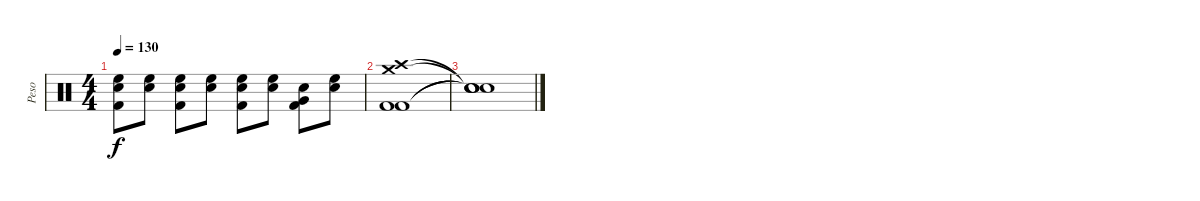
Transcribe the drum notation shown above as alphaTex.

\track ("Peso" "Peso") {instrument percussion}
\staff {score}
\articulation defaults
\ts (4 4)
\tempo 130
\clef neutral
\ks c
("High Floor Tom (hit)" "Snare (hit) 2" "Kick (hit) 2").8{dy f} ("High Floor Tom (hit)" "Snare (hit) 2").8 ("High Floor Tom (hit)" "Snare (hit) 2" "Kick (hit) 2").8 ("High Floor Tom (hit)" "Snare (hit) 2").8 ("High Floor Tom (hit)" "Snare (hit) 2" "Kick (hit) 2").8 ("High Floor Tom (hit)" "Snare (hit) 2").8 ("Very Low Tom (hit)" "Snare (hit) 2" "Kick (hit) 2").8 ("High Floor Tom (hit)" "Snare (hit) 2").8 |
("Crash medium (hit)" "Crash high (hit)" "Kick (hit) 2" "Kick (hit) 2").1 |
("Snare (hit)"{t} "Snare (hit)"{t} "Snare (hit)"{t} "Snare (hit)"{t}).1
